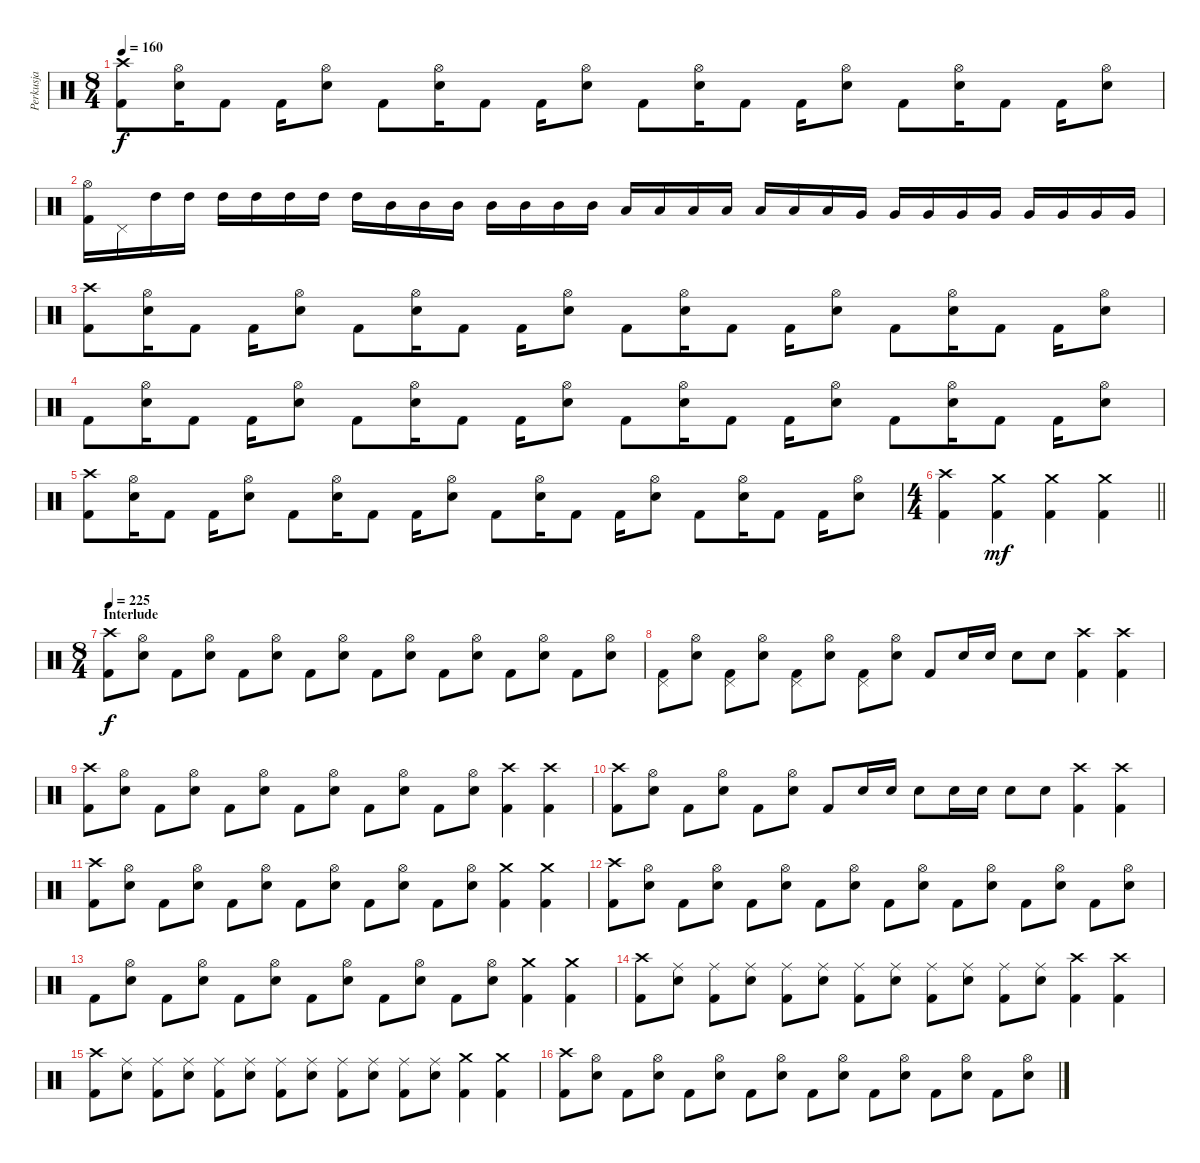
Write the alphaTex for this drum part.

\track ("Perkusja" "Perkusja") {instrument percussion}
\staff {score}
\articulation defaults
\ts (8 4)
\tempo 160
\clef neutral
\ks c
("Crash high (hit)" "Kick (hit) 2").8{dy f} ("Hi-Hat (open)" "Snare (hit) 2").16 "Kick (hit) 2".8 "Kick (hit) 2".16 ("Hi-Hat (open)" "Snare (hit) 2").8 "Kick (hit) 2".8 ("Hi-Hat (open)" "Snare (hit) 2").16 "Kick (hit) 2".8 "Kick (hit) 2".16 ("Hi-Hat (open)" "Snare (hit) 2").8 "Kick (hit) 2".8 ("Hi-Hat (open)" "Snare (hit) 2").16 "Kick (hit) 2".8 "Kick (hit) 2".16 ("Hi-Hat (open)" "Snare (hit) 2").8 "Kick (hit) 2".8 ("Hi-Hat (open)" "Snare (hit) 2").16 "Kick (hit) 2".8 "Kick (hit) 2".16 ("Hi-Hat (open)" "Snare (hit) 2").8 |
("Hi-Hat (open)" "Kick (hit) 2").16 "Pedal Hi-Hat (hit)".16 "High Tom (hit)".16 "High Tom (hit)".16 "High Tom (hit)".16 "High Tom (hit)".16 "High Tom (hit)".16 "High Tom (hit)".16 "High Tom (hit)".16 "Mid Tom (hit)".16 "Mid Tom (hit)".16 "Mid Tom (hit)".16 "Mid Tom (hit)".16 "Mid Tom (hit)".16 "Mid Tom (hit)".16 "Mid Tom (hit)".16 "Low Tom (hit)".16 "Low Tom (hit)".16 "Low Tom (hit)".16 "Low Tom (hit)".16 "Low Tom (hit)".16 "Low Tom (hit)".16 "Low Tom (hit)".16 "Very Low Tom (hit)".16 "Very Low Tom (hit)".16 "Very Low Tom (hit)".16 "Very Low Tom (hit)".16 "Very Low Tom (hit)".16 "Very Low Tom (hit)".16 "Very Low Tom (hit)".16 "Very Low Tom (hit)".16 "Very Low Tom (hit)".16 |
("Crash high (hit)" "Kick (hit) 2").8 ("Hi-Hat (open)" "Snare (hit) 2").16 "Kick (hit) 2".8 "Kick (hit) 2".16 ("Hi-Hat (open)" "Snare (hit) 2").8 "Kick (hit) 2".8 ("Hi-Hat (open)" "Snare (hit) 2").16 "Kick (hit) 2".8 "Kick (hit) 2".16 ("Hi-Hat (open)" "Snare (hit) 2").8 "Kick (hit) 2".8 ("Hi-Hat (open)" "Snare (hit) 2").16 "Kick (hit) 2".8 "Kick (hit) 2".16 ("Hi-Hat (open)" "Snare (hit) 2").8 "Kick (hit) 2".8 ("Hi-Hat (open)" "Snare (hit) 2").16 "Kick (hit) 2".8 "Kick (hit) 2".16 ("Hi-Hat (open)" "Snare (hit) 2").8 |
"Kick (hit) 2".8 ("Hi-Hat (open)" "Snare (hit) 2").16 "Kick (hit) 2".8 "Kick (hit) 2".16 ("Hi-Hat (open)" "Snare (hit) 2").8 "Kick (hit) 2".8 ("Hi-Hat (open)" "Snare (hit) 2").16 "Kick (hit) 2".8 "Kick (hit) 2".16 ("Hi-Hat (open)" "Snare (hit) 2").8 "Kick (hit) 2".8 ("Hi-Hat (open)" "Snare (hit) 2").16 "Kick (hit) 2".8 "Kick (hit) 2".16 ("Hi-Hat (open)" "Snare (hit) 2").8 "Kick (hit) 2".8 ("Hi-Hat (open)" "Snare (hit) 2").16 "Kick (hit) 2".8 "Kick (hit) 2".16 ("Hi-Hat (open)" "Snare (hit) 2").8 |
("Crash high (hit)" "Kick (hit) 2").8 ("Hi-Hat (open)" "Snare (hit) 2").16 "Kick (hit) 2".8 "Kick (hit) 2".16 ("Hi-Hat (open)" "Snare (hit) 2").8 "Kick (hit) 2".8 ("Hi-Hat (open)" "Snare (hit) 2").16 "Kick (hit) 2".8 "Kick (hit) 2".16 ("Hi-Hat (open)" "Snare (hit) 2").8 "Kick (hit) 2".8 ("Hi-Hat (open)" "Snare (hit) 2").16 "Kick (hit) 2".8 "Kick (hit) 2".16 ("Hi-Hat (open)" "Snare (hit) 2").8 "Kick (hit) 2".8 ("Hi-Hat (open)" "Snare (hit) 2").16 "Kick (hit) 2".8 "Kick (hit) 2".16 ("Hi-Hat (open)" "Snare (hit) 2").8 |
\ts (4 4)
\barLineRight lightlight
("Crash high (hit)" "Kick (hit) 2").4 ("Crash medium (hit)" "Kick (hit) 2").4{dy mf} ("Crash medium (hit)" "Kick (hit) 2").4 ("Crash medium (hit)" "Kick (hit) 2").4 |
\ts (8 4)
\section ("" "Interlude")
\tempo 225
("Crash high (hit)" "Kick (hit) 2").8{dy f} ("Hi-Hat (open)" "Snare (hit) 2").8 "Kick (hit) 2".8 ("Hi-Hat (open)" "Snare (hit) 2").8 "Kick (hit) 2".8 ("Hi-Hat (open)" "Snare (hit) 2").8 "Kick (hit) 2".8 ("Hi-Hat (open)" "Snare (hit) 2").8 "Kick (hit) 2".8 ("Hi-Hat (open)" "Snare (hit) 2").8 "Kick (hit) 2".8 ("Hi-Hat (open)" "Snare (hit) 2").8 "Kick (hit) 2".8 ("Hi-Hat (open)" "Snare (hit) 2").8 "Kick (hit) 2".8 ("Hi-Hat (open)" "Snare (hit) 2").8 |
("Pedal Hi-Hat (hit)" "Kick (hit) 2").8 ("Hi-Hat (open)" "Snare (hit) 2").8 ("Pedal Hi-Hat (hit)" "Kick (hit) 2").8 ("Hi-Hat (open)" "Snare (hit) 2").8 ("Pedal Hi-Hat (hit)" "Kick (hit) 2").8 ("Hi-Hat (open)" "Snare (hit) 2").8 ("Pedal Hi-Hat (hit)" "Kick (hit) 2").8 ("Hi-Hat (open)" "Snare (hit) 2").8 "Kick (hit) 2".8 "Snare (hit) 2".16 "Snare (hit) 2".16 "Snare (hit) 2".8 "Snare (hit) 2".8 ("Crash high (hit)" "Kick (hit) 2").4 ("Crash high (hit)" "Kick (hit) 2").4 |
("Crash high (hit)" "Kick (hit) 2").8 ("Hi-Hat (open)" "Snare (hit) 2").8 "Kick (hit) 2".8 ("Hi-Hat (open)" "Snare (hit) 2").8 "Kick (hit) 2".8 ("Hi-Hat (open)" "Snare (hit) 2").8 "Kick (hit) 2".8 ("Hi-Hat (open)" "Snare (hit) 2").8 "Kick (hit) 2".8 ("Hi-Hat (open)" "Snare (hit) 2").8 "Kick (hit) 2".8 ("Hi-Hat (open)" "Snare (hit) 2").8 ("Crash high (hit)" "Kick (hit) 2").4 ("Crash high (hit)" "Kick (hit) 2").4 |
("Crash high (hit)" "Kick (hit) 2").8 ("Hi-Hat (open)" "Snare (hit) 2").8 "Kick (hit) 2".8 ("Hi-Hat (open)" "Snare (hit) 2").8 "Kick (hit) 2".8 ("Hi-Hat (open)" "Snare (hit) 2").8 "Kick (hit) 2".8 "Snare (hit) 2".16 "Snare (hit) 2".16 "Snare (hit) 2".8 "Snare (hit) 2".16 "Snare (hit) 2".16 "Snare (hit) 2".8 "Snare (hit) 2".8 ("Crash high (hit)" "Kick (hit) 2").4 ("Crash high (hit)" "Kick (hit) 2").4 |
("Crash high (hit)" "Kick (hit) 2").8 ("Hi-Hat (open)" "Snare (hit) 2").8 "Kick (hit) 2".8 ("Hi-Hat (open)" "Snare (hit) 2").8 "Kick (hit) 2".8 ("Hi-Hat (open)" "Snare (hit) 2").8 "Kick (hit) 2".8 ("Hi-Hat (open)" "Snare (hit) 2").8 "Kick (hit) 2".8 ("Hi-Hat (open)" "Snare (hit) 2").8 "Kick (hit) 2".8 ("Hi-Hat (open)" "Snare (hit) 2").8 ("Crash medium (hit)" "Kick (hit) 2").4 ("Crash medium (hit)" "Kick (hit) 2").4 |
("Crash high (hit)" "Kick (hit) 2").8 ("Hi-Hat (open)" "Snare (hit) 2").8 "Kick (hit) 2".8 ("Hi-Hat (open)" "Snare (hit) 2").8 "Kick (hit) 2".8 ("Hi-Hat (open)" "Snare (hit) 2").8 "Kick (hit) 2".8 ("Hi-Hat (open)" "Snare (hit) 2").8 "Kick (hit) 2".8 ("Hi-Hat (open)" "Snare (hit) 2").8 "Kick (hit) 2".8 ("Hi-Hat (open)" "Snare (hit) 2").8 "Kick (hit) 2".8 ("Hi-Hat (open)" "Snare (hit) 2").8 "Kick (hit) 2".8 ("Hi-Hat (open)" "Snare (hit) 2").8 |
"Kick (hit) 2".8 ("Hi-Hat (open)" "Snare (hit) 2").8 "Kick (hit) 2".8 ("Hi-Hat (open)" "Snare (hit) 2").8 "Kick (hit) 2".8 ("Hi-Hat (open)" "Snare (hit) 2").8 "Kick (hit) 2".8 ("Hi-Hat (open)" "Snare (hit) 2").8 "Kick (hit) 2".8 ("Hi-Hat (open)" "Snare (hit) 2").8 "Kick (hit) 2".8 ("Hi-Hat (open)" "Snare (hit) 2").8 ("Crash medium (hit)" "Kick (hit) 2").4 ("Crash medium (hit)" "Kick (hit) 2").4 |
("Crash high (hit)" "Kick (hit) 2").8 ("Ride (middle)" "Snare (hit) 2").8 ("Ride (middle)" "Kick (hit) 2").8 ("Ride (middle)" "Snare (hit) 2").8 ("Ride (middle)" "Kick (hit) 2").8 ("Ride (middle)" "Snare (hit) 2").8 ("Ride (middle)" "Kick (hit) 2").8 ("Ride (middle)" "Snare (hit) 2").8 ("Ride (middle)" "Kick (hit) 2").8 ("Ride (middle)" "Snare (hit) 2").8 ("Ride (middle)" "Kick (hit) 2").8 ("Ride (middle)" "Snare (hit) 2").8 ("Crash high (hit)" "Kick (hit) 2").4 ("Crash high (hit)" "Kick (hit) 2").4 |
("Crash high (hit)" "Kick (hit) 2").8 ("Ride (middle)" "Snare (hit) 2").8 ("Ride (middle)" "Kick (hit) 2").8 ("Ride (middle)" "Snare (hit) 2").8 ("Ride (middle)" "Kick (hit) 2").8 ("Ride (middle)" "Snare (hit) 2").8 ("Ride (middle)" "Kick (hit) 2").8 ("Ride (middle)" "Snare (hit) 2").8 ("Ride (middle)" "Kick (hit) 2").8 ("Ride (middle)" "Snare (hit) 2").8 ("Ride (middle)" "Kick (hit) 2").8 ("Ride (middle)" "Snare (hit) 2").8 ("Crash medium (hit)" "Kick (hit) 2").4 ("Crash medium (hit)" "Kick (hit) 2").4 |
("Crash high (hit)" "Kick (hit) 2").8 ("Hi-Hat (open)" "Snare (hit) 2").8 "Kick (hit) 2".8 ("Hi-Hat (open)" "Snare (hit) 2").8 "Kick (hit) 2".8 ("Hi-Hat (open)" "Snare (hit) 2").8 "Kick (hit) 2".8 ("Hi-Hat (open)" "Snare (hit) 2").8 "Kick (hit) 2".8 ("Hi-Hat (open)" "Snare (hit) 2").8 "Kick (hit) 2".8 ("Hi-Hat (open)" "Snare (hit) 2").8 "Kick (hit) 2".8 ("Hi-Hat (open)" "Snare (hit) 2").8 "Kick (hit) 2".8 ("Hi-Hat (open)" "Snare (hit) 2").8
